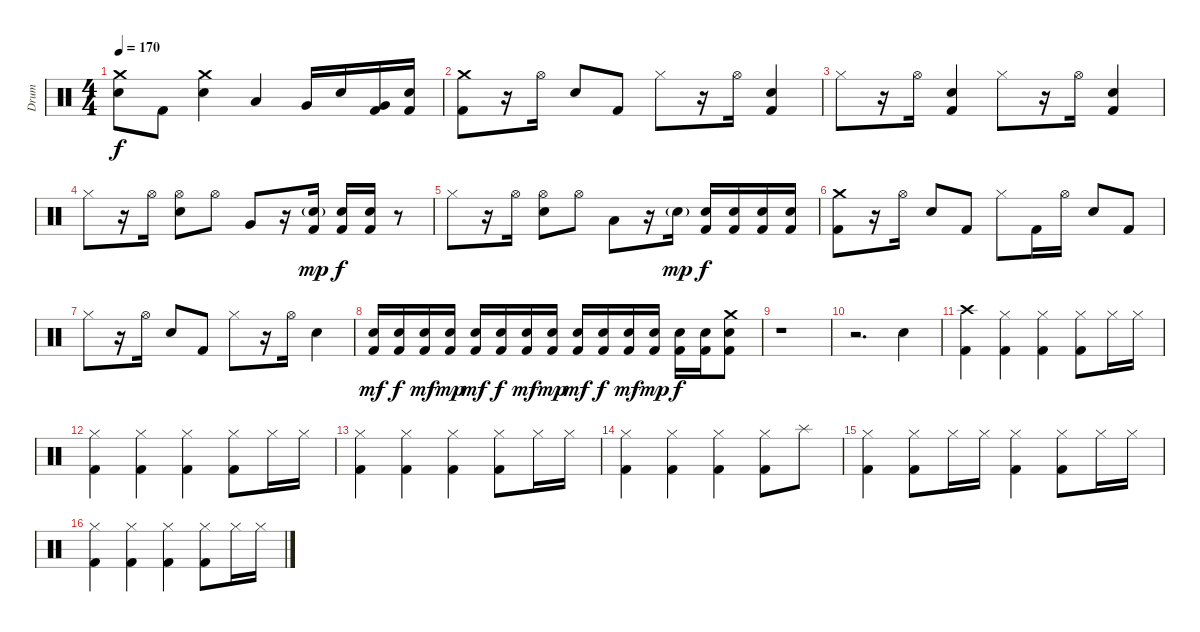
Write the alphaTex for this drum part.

\track ("Drum" "Drum") {instrument percussion}
\staff {score}
\articulation defaults
\ts (4 4)
\tempo 170
\clef neutral
\ks c
("Crash medium (hit)" "Electric Snare (hit)").8{dy f} "Kick (hit) 2".8 ("Crash medium (hit)" "Electric Snare (hit)").4 "Low Floor Tom (hit)".4 "Very Low Tom (hit)".16 "Electric Snare (hit)".16 ("Very Low Tom (hit)" "Kick (hit) 2").16 ("Electric Snare (hit)" "Kick (hit) 2").16 |
("Crash medium (hit)" "Kick (hit) 2").8 r.16 "Hi-Hat (open)".16 "Electric Snare (hit)".8 "Kick (hit) 2".8 "Hi-Hat (closed)".8 r.16 "Hi-Hat (open)".16 ("Electric Snare (hit)" "Kick (hit) 2").4 |
"Hi-Hat (closed)".8 r.16 "Hi-Hat (open)".16 ("Electric Snare (hit)" "Kick (hit) 2").4 "Hi-Hat (closed)".8 r.16 "Hi-Hat (open)".16 ("Electric Snare (hit)" "Kick (hit) 2").4 |
"Hi-Hat (closed)".8 r.16 "Hi-Hat (open)".16 ("Hi-Hat (open)" "Electric Snare (hit)").8 "Hi-Hat (open)".8 "Very Low Tom (hit)".8 r.16 ("Electric Snare (hit)"{g} "Kick (hit) 2").16{dy mp} ("Electric Snare (hit)" "Kick (hit) 2").16{dy f} ("Electric Snare (hit)" "Kick (hit) 2").16 r.8 |
"Hi-Hat (closed)".8 r.16 "Hi-Hat (open)".16 ("Hi-Hat (open)" "Electric Snare (hit)").8 "Hi-Hat (open)".8 "Low Floor Tom (hit)".8 r.16 "Electric Snare (hit)"{g}.16{dy mp} ("Electric Snare (hit)" "Kick (hit) 2").16{dy f} ("Electric Snare (hit)" "Kick (hit) 2").16 ("Electric Snare (hit)" "Kick (hit) 2").16 ("Electric Snare (hit)" "Kick (hit) 2").16 |
("Crash medium (hit)" "Kick (hit) 2").8 r.16 "Hi-Hat (open)".16 "Electric Snare (hit)".8 "Kick (hit) 2".8 "Hi-Hat (closed)".8 "Kick (hit) 2".16 "Hi-Hat (open)".16 "Electric Snare (hit)".8 "Kick (hit) 2".8 |
"Hi-Hat (closed)".8 r.16 "Hi-Hat (open)".16 "Electric Snare (hit)".8 "Kick (hit) 2".8 "Hi-Hat (closed)".8 r.16 "Hi-Hat (open)".16 "Electric Snare (hit)".4 |
("Electric Snare (hit)" "Kick (hit) 2").16{dy mf} ("Electric Snare (hit)" "Kick (hit) 2").16{dy f} ("Electric Snare (hit)" "Kick (hit) 2").16{dy mf} ("Electric Snare (hit)" "Kick (hit) 2").16{dy mp} ("Electric Snare (hit)" "Kick (hit) 2").16{dy mf} ("Electric Snare (hit)" "Kick (hit) 2").16{dy f} ("Electric Snare (hit)" "Kick (hit) 2").16{dy mf} ("Electric Snare (hit)" "Kick (hit) 2").16{dy mp} ("Electric Snare (hit)" "Kick (hit) 2").16{dy mf} ("Electric Snare (hit)" "Kick (hit) 2").16{dy f} ("Electric Snare (hit)" "Kick (hit) 2").16{dy mf} ("Electric Snare (hit)" "Kick (hit) 2").16{dy mp} ("Electric Snare (hit)" "Kick (hit) 2").16{dy f} ("Electric Snare (hit)" "Kick (hit) 2").16 ("Crash medium (hit)" "Electric Snare (hit)" "Kick (hit) 2").8 |
r.1 |
r.2{d} "Electric Snare (hit)".4 |
("Crash high (hit)" "Kick (hit) 2").4 ("Hi-Hat (closed)" "Kick (hit) 2").4 ("Hi-Hat (closed)" "Kick (hit) 2").4 ("Hi-Hat (closed)" "Kick (hit) 2").8 "Hi-Hat (closed)".16 "Hi-Hat (closed)".16 |
("Hi-Hat (closed)" "Kick (hit) 2").4 ("Hi-Hat (closed)" "Kick (hit) 2").4 ("Hi-Hat (closed)" "Kick (hit) 2").4 ("Hi-Hat (closed)" "Kick (hit) 2").8 "Hi-Hat (closed)".16 "Hi-Hat (closed)".16 |
("Hi-Hat (closed)" "Kick (hit) 2").4 ("Hi-Hat (closed)" "Kick (hit) 2").4 ("Hi-Hat (closed)" "Kick (hit) 2").4 ("Hi-Hat (closed)" "Kick (hit) 2").8 "Hi-Hat (closed)".16 "Hi-Hat (closed)".16 |
("Hi-Hat (closed)" "Kick (hit) 2").4 ("Hi-Hat (closed)" "Kick (hit) 2").4 ("Hi-Hat (closed)" "Kick (hit) 2").4 ("Hi-Hat (closed)" "Kick (hit) 2").8 "Splash (hit)".8 |
("Hi-Hat (closed)" "Kick (hit) 2").4 ("Hi-Hat (closed)" "Kick (hit) 2").8 "Hi-Hat (closed)".16 "Hi-Hat (closed)".16 ("Hi-Hat (closed)" "Kick (hit) 2").4 ("Hi-Hat (closed)" "Kick (hit) 2").8 "Hi-Hat (closed)".16 "Hi-Hat (closed)".16 |
("Hi-Hat (closed)" "Kick (hit) 2").4 ("Hi-Hat (closed)" "Kick (hit) 2").4 ("Hi-Hat (closed)" "Kick (hit) 2").4 ("Hi-Hat (closed)" "Kick (hit) 2").8 "Hi-Hat (closed)".16 "Hi-Hat (closed)".16
